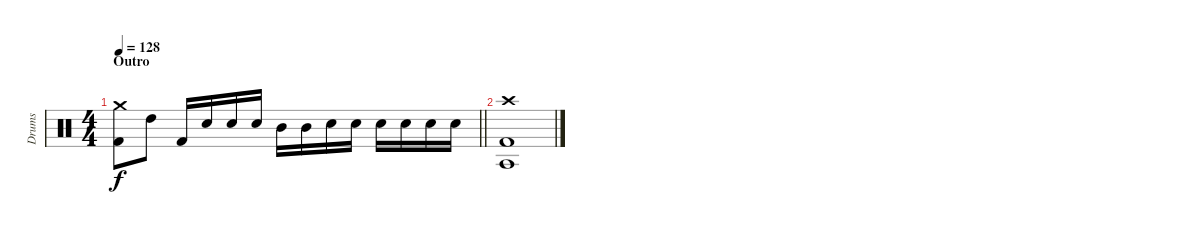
\track ("Drums" "Drums") {instrument percussion}
\staff {score}
\articulation defaults
\ts (4 4)
\section ("" "Outro")
\tempo 128
\clef neutral
\barLineRight lightlight
\ks c
("Crash medium (hit)" "Kick (hit) 2").8{dy f} "High Tom (hit)".8 "Kick (hit) 2".16 "Electric Snare (hit)".16 "Electric Snare (hit)".16 "Electric Snare (hit)".16 "Mid Tom (hit)".16 "Mid Tom (hit)".16 "Electric Snare (hit)".16 "Electric Snare (hit)".16 "Electric Snare (hit)".16 "Electric Snare (hit)".16 "Electric Snare (hit)".16 "Electric Snare (hit)".16 |
("Crash high (hit)" "Agogo tow (hit)" "Kick (hit) 2").1
